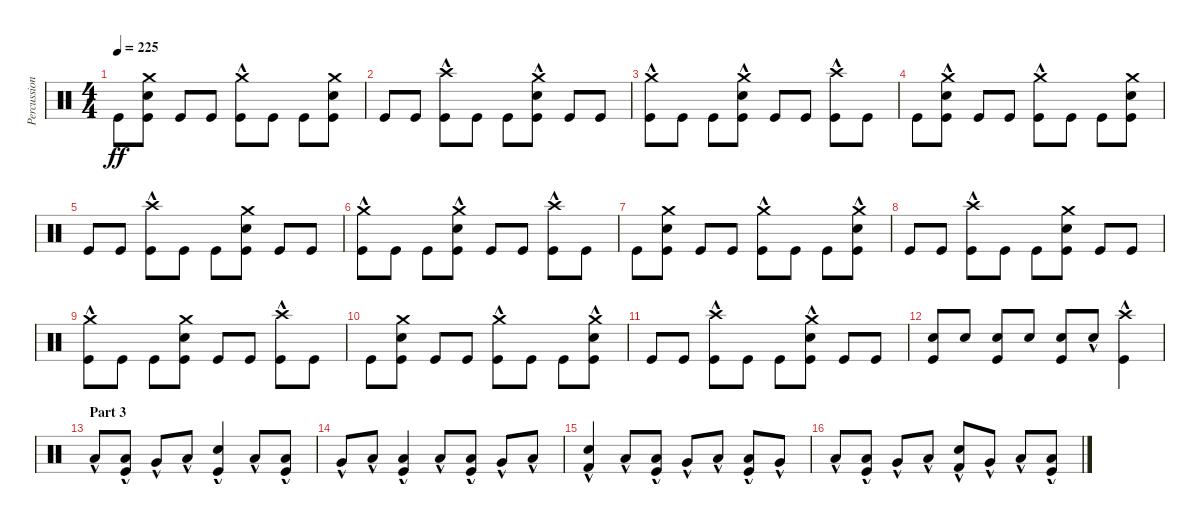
\track ("Percussions" "Percussion") {instrument percussion}
\staff {score}
\articulation defaults
\ts (4 4)
\tempo 225
\clef neutral
\ks c "Kick (hit)".8{dy ff}
("Kick (hit)" "Electric Snare (hit)" "Crash medium (hit)").8 "Kick (hit)".8 "Kick (hit)".8 ("Kick (hit)" "Crash medium (hit)"{hac}).8 "Kick (hit)".8 "Kick (hit)".8 ("Kick (hit)" "Electric Snare (hit)" "Crash medium (hit)").8 |
"Kick (hit)".8 "Kick (hit)".8 ("Kick (hit)" "Crash high (hit)"{hac}).8 "Kick (hit)".8 "Kick (hit)".8 ("Kick (hit)" "Electric Snare (hit)" "Crash medium (hit)"{hac}).8 "Kick (hit)".8 "Kick (hit)".8 |
("Kick (hit)" "Crash medium (hit)"{hac}).8 "Kick (hit)".8 "Kick (hit)".8 ("Kick (hit)" "Electric Snare (hit)" "Crash medium (hit)"{hac}).8 "Kick (hit)".8 "Kick (hit)".8 ("Kick (hit)" "Crash high (hit)"{hac}).8 "Kick (hit)".8 |
"Kick (hit)".8 ("Kick (hit)" "Electric Snare (hit)" "Crash medium (hit)"{hac}).8 "Kick (hit)".8 "Kick (hit)".8 ("Kick (hit)" "Crash medium (hit)"{hac}).8 "Kick (hit)".8 "Kick (hit)".8 ("Kick (hit)" "Electric Snare (hit)" "Crash medium (hit)").8 |
"Kick (hit)".8 "Kick (hit)".8 ("Kick (hit)" "Crash high (hit)"{hac}).8 "Kick (hit)".8 "Kick (hit)".8 ("Kick (hit)" "Electric Snare (hit)" "Crash medium (hit)").8 "Kick (hit)".8 "Kick (hit)".8 |
("Kick (hit)" "Crash medium (hit)"{hac}).8 "Kick (hit)".8 "Kick (hit)".8 ("Kick (hit)" "Electric Snare (hit)" "Crash medium (hit)"{hac}).8 "Kick (hit)".8 "Kick (hit)".8 ("Kick (hit)" "Crash high (hit)"{hac}).8 "Kick (hit)".8 |
"Kick (hit)".8 ("Kick (hit)" "Electric Snare (hit)" "Crash medium (hit)").8 "Kick (hit)".8 "Kick (hit)".8 ("Kick (hit)" "Crash medium (hit)"{hac}).8 "Kick (hit)".8 "Kick (hit)".8 ("Kick (hit)" "Electric Snare (hit)" "Crash medium (hit)"{hac}).8 |
"Kick (hit)".8 "Kick (hit)".8 ("Kick (hit)" "Crash high (hit)"{hac}).8 "Kick (hit)".8 "Kick (hit)".8 ("Kick (hit)" "Electric Snare (hit)" "Crash medium (hit)").8 "Kick (hit)".8 "Kick (hit)".8 |
("Kick (hit)" "Crash medium (hit)"{hac}).8 "Kick (hit)".8 "Kick (hit)".8 ("Kick (hit)" "Electric Snare (hit)" "Crash medium (hit)").8 "Kick (hit)".8 "Kick (hit)".8 ("Kick (hit)" "Crash high (hit)"{hac}).8 "Kick (hit)".8 |
"Kick (hit)".8 ("Kick (hit)" "Electric Snare (hit)" "Crash medium (hit)").8 "Kick (hit)".8 "Kick (hit)".8 ("Kick (hit)" "Crash medium (hit)"{hac}).8 "Kick (hit)".8 "Kick (hit)".8 ("Kick (hit)" "Electric Snare (hit)" "Crash medium (hit)"{hac}).8 |
"Kick (hit)".8 "Kick (hit)".8 ("Kick (hit)" "Crash high (hit)"{hac}).8 "Kick (hit)".8 "Kick (hit)".8 ("Kick (hit)" "Electric Snare (hit)" "Crash medium (hit)"{hac}).8 "Kick (hit)".8 "Kick (hit)".8 |
("Kick (hit)" "Electric Snare (hit)").8 "Electric Snare (hit)".8 ("Kick (hit)" "Electric Snare (hit)").8 "Electric Snare (hit)".8 ("Kick (hit)" "Electric Snare (hit)").8 "Electric Snare (hit)"{hac}.8 ("Kick (hit)"{hac} "Crash high (hit)").4 |
\section ("" "Part 3")
"Low Floor Tom (hit)"{hac}.8 ("Kick (hit)"{hac} "Low Tom (hit)"{hac}).8 "Very Low Tom (hit)"{hac}.8 "Low Floor Tom (hit)"{hac}.8 ("Kick (hit)"{hac} "Electric Snare (hit)").4 "Low Floor Tom (hit)"{hac}.8 ("Kick (hit)"{hac} "Low Tom (hit)").8 |
"Very Low Tom (hit)"{hac}.8 "Low Floor Tom (hit)"{hac}.8 ("Kick (hit)"{hac} "Low Tom (hit)"{hac}).4 "Low Floor Tom (hit)"{hac}.8 ("Kick (hit)"{hac} "Low Tom (hit)").8 "Very Low Tom (hit)"{hac}.8 "Low Floor Tom (hit)"{hac}.8 |
("Kick (hit) 2"{hac} "Electric Snare (hit)").4 "Low Floor Tom (hit)"{hac}.8 ("Kick (hit)"{hac} "Low Tom (hit)"{hac}).8 "Very Low Tom (hit)"{hac}.8 "Low Floor Tom (hit)"{hac}.8 ("Kick (hit)"{hac} "Low Tom (hit)").8 "Very Low Tom (hit)"{hac}.8 |
"Low Floor Tom (hit)"{hac}.8 ("Kick (hit)"{hac} "Low Tom (hit)").8 "Very Low Tom (hit)"{hac}.8 "Low Floor Tom (hit)"{hac}.8 ("Kick (hit) 2"{hac} "Electric Snare (hit)").8 "Very Low Tom (hit)"{hac}.8 "Low Floor Tom (hit)"{hac}.8 ("Kick (hit)"{hac} "Low Tom (hit)").8
